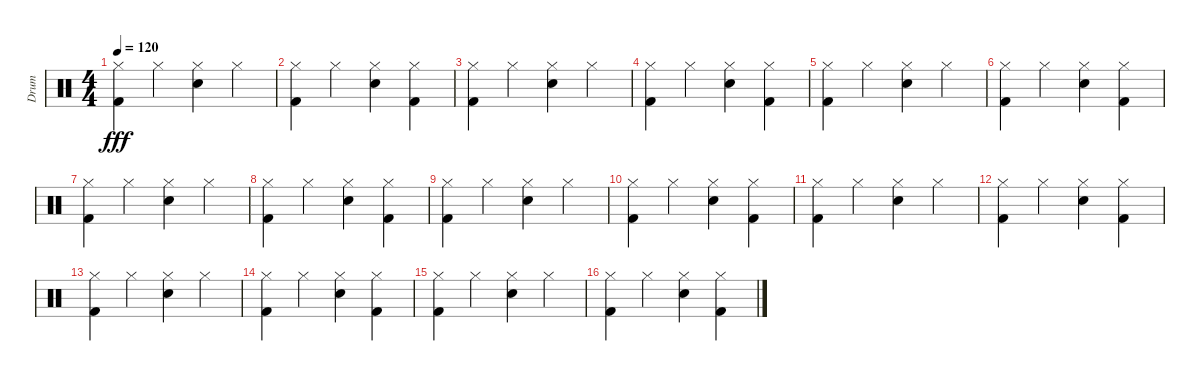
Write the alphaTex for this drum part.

\track ("Drum" "Drum") {instrument percussion}
\staff {score}
\articulation defaults
\ts (4 4)
\tempo 120
\clef neutral
\ks c
("Hi-Hat (closed)" "Kick (hit) 2").4{dy fff} "Hi-Hat (closed)".4 ("Hi-Hat (closed)" "Electric Snare (hit)").4 "Hi-Hat (closed)".4 |
("Hi-Hat (closed)" "Kick (hit) 2").4 "Hi-Hat (closed)".4 ("Hi-Hat (closed)" "Electric Snare (hit)").4 ("Hi-Hat (closed)" "Kick (hit) 2").4 |
("Hi-Hat (closed)" "Kick (hit) 2").4 "Hi-Hat (closed)".4 ("Hi-Hat (closed)" "Electric Snare (hit)").4 "Hi-Hat (closed)".4 |
("Hi-Hat (closed)" "Kick (hit) 2").4 "Hi-Hat (closed)".4 ("Hi-Hat (closed)" "Electric Snare (hit)").4 ("Hi-Hat (closed)" "Kick (hit) 2").4 |
("Hi-Hat (closed)" "Kick (hit) 2").4 "Hi-Hat (closed)".4 ("Hi-Hat (closed)" "Electric Snare (hit)").4 "Hi-Hat (closed)".4 |
("Hi-Hat (closed)" "Kick (hit) 2").4 "Hi-Hat (closed)".4 ("Hi-Hat (closed)" "Electric Snare (hit)").4 ("Hi-Hat (closed)" "Kick (hit) 2").4 |
("Hi-Hat (closed)" "Kick (hit) 2").4 "Hi-Hat (closed)".4 ("Hi-Hat (closed)" "Electric Snare (hit)").4 "Hi-Hat (closed)".4 |
("Hi-Hat (closed)" "Kick (hit) 2").4 "Hi-Hat (closed)".4 ("Hi-Hat (closed)" "Electric Snare (hit)").4 ("Hi-Hat (closed)" "Kick (hit) 2").4 |
("Hi-Hat (closed)" "Kick (hit) 2").4 "Hi-Hat (closed)".4 ("Hi-Hat (closed)" "Electric Snare (hit)").4 "Hi-Hat (closed)".4 |
("Hi-Hat (closed)" "Kick (hit) 2").4 "Hi-Hat (closed)".4 ("Hi-Hat (closed)" "Electric Snare (hit)").4 ("Hi-Hat (closed)" "Kick (hit) 2").4 |
("Hi-Hat (closed)" "Kick (hit) 2").4 "Hi-Hat (closed)".4 ("Hi-Hat (closed)" "Electric Snare (hit)").4 "Hi-Hat (closed)".4 |
("Hi-Hat (closed)" "Kick (hit) 2").4 "Hi-Hat (closed)".4 ("Hi-Hat (closed)" "Electric Snare (hit)").4 ("Hi-Hat (closed)" "Kick (hit) 2").4 |
("Hi-Hat (closed)" "Kick (hit) 2").4 "Hi-Hat (closed)".4 ("Hi-Hat (closed)" "Electric Snare (hit)").4 "Hi-Hat (closed)".4 |
("Hi-Hat (closed)" "Kick (hit) 2").4 "Hi-Hat (closed)".4 ("Hi-Hat (closed)" "Electric Snare (hit)").4 ("Hi-Hat (closed)" "Kick (hit) 2").4 |
("Hi-Hat (closed)" "Kick (hit) 2").4 "Hi-Hat (closed)".4 ("Hi-Hat (closed)" "Electric Snare (hit)").4 "Hi-Hat (closed)".4 |
("Hi-Hat (closed)" "Kick (hit) 2").4 "Hi-Hat (closed)".4 ("Hi-Hat (closed)" "Electric Snare (hit)").4 ("Hi-Hat (closed)" "Kick (hit) 2").4
